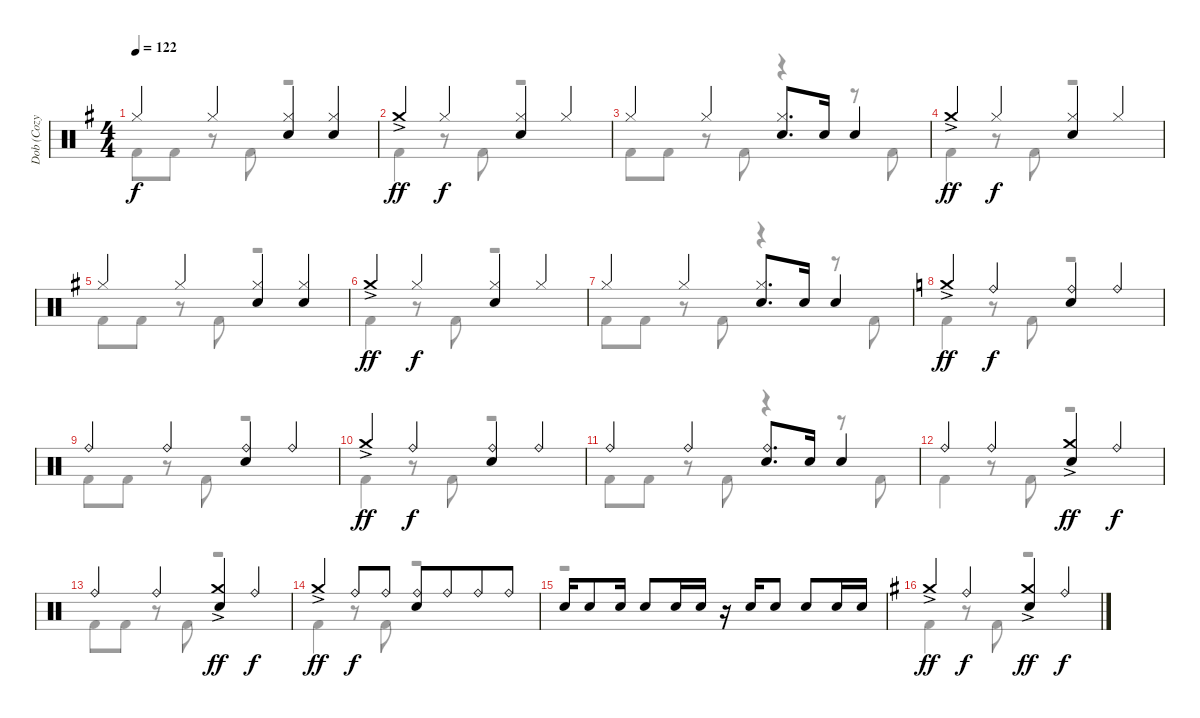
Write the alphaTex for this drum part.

\track ("Dob (Cozy Powell)" "Dob (Cozy ") {instrument percussion}
\staff {score}
\articulation defaults
\voice
\ts (4 4)
\tempo 122
\clef neutral
\ks g "Hi-Hat (closed)".4{dy f} "Hi-Hat (closed)".4
("Hi-Hat (closed)" "Electric Snare (hit)").4 ("Hi-Hat (closed)" "Electric Snare (hit)").4 |
"Crash medium (hit)"{ac}.4{dy ff} "Hi-Hat (closed)".4{dy f} ("Hi-Hat (closed)" "Electric Snare (hit)").4 "Hi-Hat (closed)".4 |
"Hi-Hat (closed)".4 "Hi-Hat (closed)".4 ("Hi-Hat (closed)" "Electric Snare (hit)").8{d} "Electric Snare (hit)".16 "Electric Snare (hit)".4 |
"Crash medium (hit)"{ac}.4{dy ff} "Hi-Hat (closed)".4{dy f} ("Hi-Hat (closed)" "Electric Snare (hit)").4 "Hi-Hat (closed)".4 |
"Hi-Hat (closed)".4 "Hi-Hat (closed)".4 ("Hi-Hat (closed)" "Electric Snare (hit)").4 ("Hi-Hat (closed)" "Electric Snare (hit)").4 |
"Crash medium (hit)"{ac}.4{dy ff} "Hi-Hat (closed)".4{dy f} ("Hi-Hat (closed)" "Electric Snare (hit)").4 "Hi-Hat (closed)".4 |
"Hi-Hat (closed)".4 "Hi-Hat (closed)".4 ("Hi-Hat (closed)" "Electric Snare (hit)").8{d} "Electric Snare (hit)".16 "Electric Snare (hit)".4 |
\ks c "Crash medium (hit)"{ac}.4{dy ff} "Ride (bell)".4{dy f}
("Ride (bell)" "Electric Snare (hit)").4 "Ride (bell)".4 |
"Ride (bell)".4 "Ride (bell)".4 ("Ride (bell)" "Electric Snare (hit)").4 "Ride (bell)".4 |
"Crash medium (hit)"{ac}.4{dy ff} "Ride (bell)".4{dy f} ("Ride (bell)" "Electric Snare (hit)").4 "Ride (bell)".4 |
"Ride (bell)".4 "Ride (bell)".4 ("Ride (bell)" "Electric Snare (hit)").8{d} "Electric Snare (hit)".16 "Electric Snare (hit)".4 |
"Ride (bell)".4 "Ride (bell)".4 ("Crash medium (hit)"{ac} "Electric Snare (hit)").4{dy ff} "Ride (bell)".4{dy f} |
"Ride (bell)".4 "Ride (bell)".4 ("Crash medium (hit)"{ac} "Electric Snare (hit)").4{dy ff} "Ride (bell)".4{dy f} |
"Crash medium (hit)"{ac}.4{dy ff} "Ride (bell)".8{dy f} "Ride (bell)".8 ("Ride (bell)" "Electric Snare (hit)").8 "Ride (bell)".8{beam merge} "Ride (bell)".8 "Ride (bell)".8 |
"Electric Snare (hit)".16 "Electric Snare (hit)".8 "Electric Snare (hit)".16 "Electric Snare (hit)".8 "Electric Snare (hit)".16 "Electric Snare (hit)".16 r.16 "Electric Snare (hit)".16 "Electric Snare (hit)".8 "Electric Snare (hit)".8 "Electric Snare (hit)".16 "Electric Snare (hit)".16 |
\ks g "Crash medium (hit)"{ac}.4{dy ff} "Ride (bell)".4{dy f}
("Crash medium (hit)"{ac} "Electric Snare (hit)").4{dy ff} "Ride (bell)".4{dy f}
\voice
\clef neutral
\ottava regular
\simile none
\ks g "Kick (hit) 2".8{dy f} "Kick (hit) 2".8
r.8 "Kick (hit) 2".8 r.2 |
"Kick (hit) 2".4 r.8 "Kick (hit) 2".8 r.2 |
"Kick (hit) 2".8 "Kick (hit) 2".8 r.8 "Kick (hit) 2".8 r.4 r.8 "Kick (hit) 2".8 |
"Kick (hit) 2".4 r.8 "Kick (hit) 2".8 r.2 |
"Kick (hit) 2".8 "Kick (hit) 2".8 r.8 "Kick (hit) 2".8 r.2 |
"Kick (hit) 2".4 r.8 "Kick (hit) 2".8 r.2 |
"Kick (hit) 2".8 "Kick (hit) 2".8 r.8 "Kick (hit) 2".8 r.4 r.8 "Kick (hit) 2".8 |
\ks c "Kick (hit) 2".4
r.8 "Kick (hit) 2".8 r.2 |
"Kick (hit) 2".8 "Kick (hit) 2".8 r.8 "Kick (hit) 2".8 r.2 |
"Kick (hit) 2".4 r.8 "Kick (hit) 2".8 r.2 |
"Kick (hit) 2".8 "Kick (hit) 2".8 r.8 "Kick (hit) 2".8 r.4 r.8 "Kick (hit) 2".8 |
"Kick (hit) 2".4 r.8 "Kick (hit) 2".8 r.2 |
"Kick (hit) 2".8 "Kick (hit) 2".8 r.8 "Kick (hit) 2".8 r.2 |
"Kick (hit) 2".4 r.8 "Kick (hit) 2".8 r.2 |
r.1 |
\ks g "Kick (hit) 2".4
r.8 "Kick (hit) 2".8 r.2
